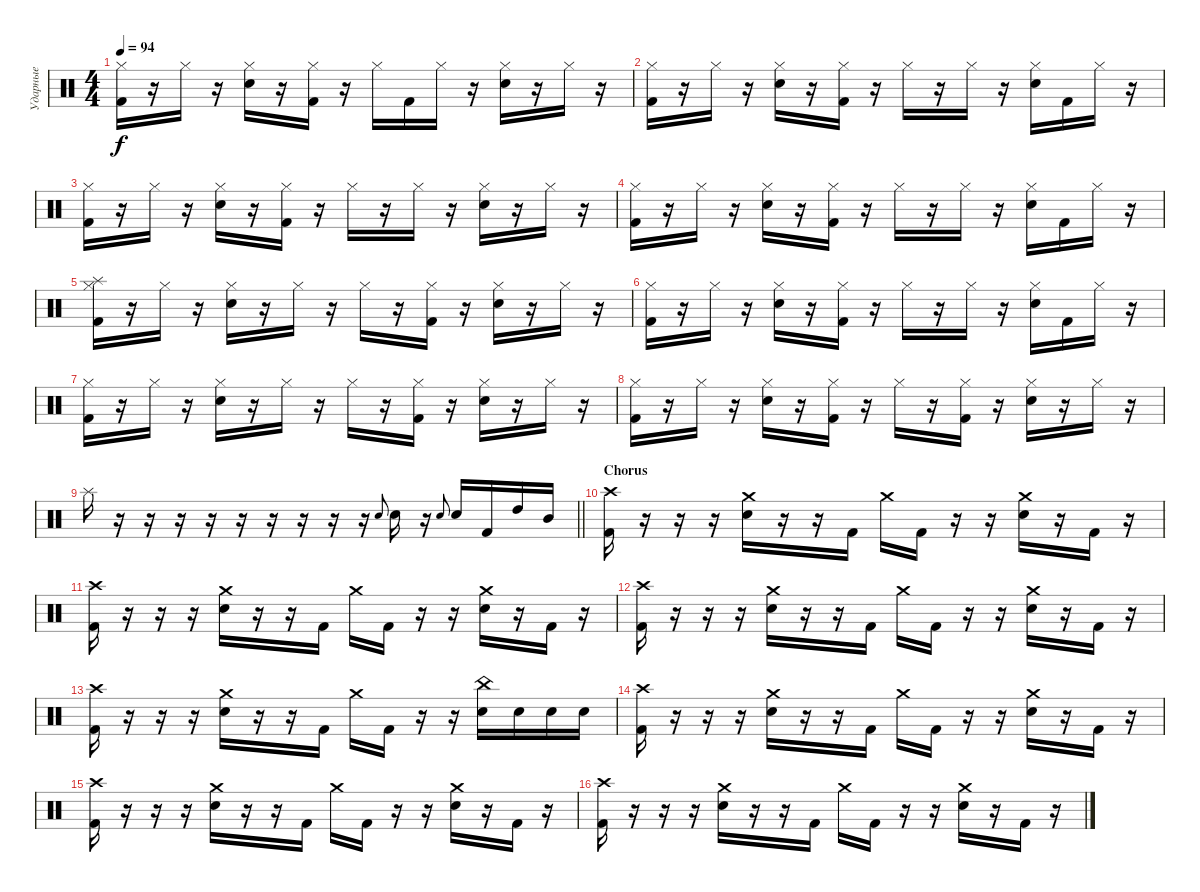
\track ("Ударные" "Ударные") {instrument percussion}
\staff {score}
\articulation defaults
\ts (4 4)
\tempo 94
\clef neutral
\ks c
("Hi-Hat (closed)" "Kick (hit) 2").16{dy f} r.16 "Hi-Hat (closed)".16 r.16 ("Hi-Hat (closed)" "Electric Snare (hit)").16 r.16 ("Hi-Hat (closed)" "Kick (hit) 2").16 r.16 "Hi-Hat (closed)".16 "Kick (hit) 2".16 "Hi-Hat (closed)".16 r.16 ("Hi-Hat (closed)" "Electric Snare (hit)").16 r.16 "Hi-Hat (closed)".16 r.16 |
("Hi-Hat (closed)" "Kick (hit) 2").16 r.16 "Hi-Hat (closed)".16 r.16 ("Hi-Hat (closed)" "Electric Snare (hit)").16 r.16 ("Hi-Hat (closed)" "Kick (hit) 2").16 r.16 "Hi-Hat (closed)".16 r.16 "Hi-Hat (closed)".16 r.16 ("Hi-Hat (closed)" "Electric Snare (hit)").16 "Kick (hit) 2".16 "Hi-Hat (closed)".16 r.16 |
("Hi-Hat (closed)" "Kick (hit) 2").16 r.16 "Hi-Hat (closed)".16 r.16 ("Hi-Hat (closed)" "Electric Snare (hit)").16 r.16 ("Hi-Hat (closed)" "Kick (hit) 2").16 r.16 "Hi-Hat (closed)".16 r.16 "Hi-Hat (closed)".16 r.16 ("Hi-Hat (closed)" "Electric Snare (hit)").16 r.16 "Hi-Hat (closed)".16 r.16 |
("Hi-Hat (closed)" "Kick (hit) 2").16 r.16 "Hi-Hat (closed)".16 r.16 ("Hi-Hat (closed)" "Electric Snare (hit)").16 r.16 ("Hi-Hat (closed)" "Kick (hit) 2").16 r.16 "Hi-Hat (closed)".16 r.16 "Hi-Hat (closed)".16 r.16 ("Hi-Hat (closed)" "Electric Snare (hit)").16 "Kick (hit) 2".16 "Hi-Hat (closed)".16 r.16 |
("Hi-Hat (closed)" "Splash (hit)" "Kick (hit) 2").16 r.16 "Hi-Hat (closed)".16 r.16 ("Hi-Hat (closed)" "Electric Snare (hit)").16 r.16 "Hi-Hat (closed)".16 r.16 "Hi-Hat (closed)".16 r.16 ("Hi-Hat (closed)" "Kick (hit) 2").16 r.16 ("Hi-Hat (closed)" "Electric Snare (hit)").16 r.16 "Hi-Hat (closed)".16 r.16 |
("Hi-Hat (closed)" "Kick (hit) 2").16 r.16 "Hi-Hat (closed)".16 r.16 ("Hi-Hat (closed)" "Electric Snare (hit)").16 r.16 ("Hi-Hat (closed)" "Kick (hit) 2").16 r.16 "Hi-Hat (closed)".16 r.16 "Hi-Hat (closed)".16 r.16 ("Hi-Hat (closed)" "Electric Snare (hit)").16 "Kick (hit) 2".16 "Hi-Hat (closed)".16 r.16 |
("Hi-Hat (closed)" "Kick (hit) 2").16 r.16 "Hi-Hat (closed)".16 r.16 ("Hi-Hat (closed)" "Electric Snare (hit)").16 r.16 "Hi-Hat (closed)".16 r.16 "Hi-Hat (closed)".16 r.16 ("Hi-Hat (closed)" "Kick (hit) 2").16 r.16 ("Hi-Hat (closed)" "Electric Snare (hit)").16 r.16 "Hi-Hat (closed)".16 r.16 |
("Hi-Hat (closed)" "Kick (hit) 2").16 r.16 "Hi-Hat (closed)".16 r.16 ("Hi-Hat (closed)" "Electric Snare (hit)").16 r.16 ("Hi-Hat (closed)" "Kick (hit) 2").16 r.16 "Hi-Hat (closed)".16 r.16 ("Hi-Hat (closed)" "Kick (hit) 2").16 r.16 ("Hi-Hat (closed)" "Electric Snare (hit)").16 r.16 "Hi-Hat (closed)".16 r.16 |
\barLineRight lightlight "Splash (hit)".16
r.16 r.16 r.16 r.16 r.16 r.16 r.16 r.16 r.16 "Electric Snare (hit)".8{gr onbeat} "Electric Snare (hit)".16 r.16 "Electric Snare (hit)".8{gr onbeat} "Electric Snare (hit)".16 "Kick (hit) 2".16 "High Tom (hit)".16 "Mid Tom (hit)".16 |
\section ("" "Chorus")
("Crash high (hit)" "Kick (hit) 2").16 r.16 r.16 r.16 ("Crash medium (hit)" "Electric Snare (hit)").16 r.16 r.16 "Kick (hit) 2".16 "Crash medium (hit)".16 "Kick (hit) 2".16 r.16 r.16 ("Crash medium (hit)" "Electric Snare (hit)").16 r.16 "Kick (hit) 2".16 r.16 |
("Crash high (hit)" "Kick (hit) 2").16 r.16 r.16 r.16 ("Crash medium (hit)" "Electric Snare (hit)").16 r.16 r.16 "Kick (hit) 2".16 "Crash medium (hit)".16 "Kick (hit) 2".16 r.16 r.16 ("Crash medium (hit)" "Electric Snare (hit)").16 r.16 "Kick (hit) 2".16 r.16 |
("Crash high (hit)" "Kick (hit) 2").16 r.16 r.16 r.16 ("Crash medium (hit)" "Electric Snare (hit)").16 r.16 r.16 "Kick (hit) 2".16 "Crash medium (hit)".16 "Kick (hit) 2".16 r.16 r.16 ("Crash medium (hit)" "Electric Snare (hit)").16 r.16 "Kick (hit) 2".16 r.16 |
("Crash high (hit)" "Kick (hit) 2").16 r.16 r.16 r.16 ("Crash medium (hit)" "Electric Snare (hit)").16 r.16 r.16 "Kick (hit) 2".16 "Crash medium (hit)".16 "Kick (hit) 2".16 r.16 r.16 ("China (hit)" "Electric Snare (hit)").16 "Electric Snare (hit)".16 "Electric Snare (hit)".16 "Electric Snare (hit)".16 |
("Crash high (hit)" "Kick (hit) 2").16 r.16 r.16 r.16 ("Crash medium (hit)" "Electric Snare (hit)").16 r.16 r.16 "Kick (hit) 2".16 "Crash medium (hit)".16 "Kick (hit) 2".16 r.16 r.16 ("Crash medium (hit)" "Electric Snare (hit)").16 r.16 "Kick (hit) 2".16 r.16 |
("Crash high (hit)" "Kick (hit) 2").16 r.16 r.16 r.16 ("Crash medium (hit)" "Electric Snare (hit)").16 r.16 r.16 "Kick (hit) 2".16 "Crash medium (hit)".16 "Kick (hit) 2".16 r.16 r.16 ("Crash medium (hit)" "Electric Snare (hit)").16 r.16 "Kick (hit) 2".16 r.16 |
("Crash high (hit)" "Kick (hit) 2").16 r.16 r.16 r.16 ("Crash medium (hit)" "Electric Snare (hit)").16 r.16 r.16 "Kick (hit) 2".16 "Crash medium (hit)".16 "Kick (hit) 2".16 r.16 r.16 ("Crash medium (hit)" "Electric Snare (hit)").16 r.16 "Kick (hit) 2".16 r.16
